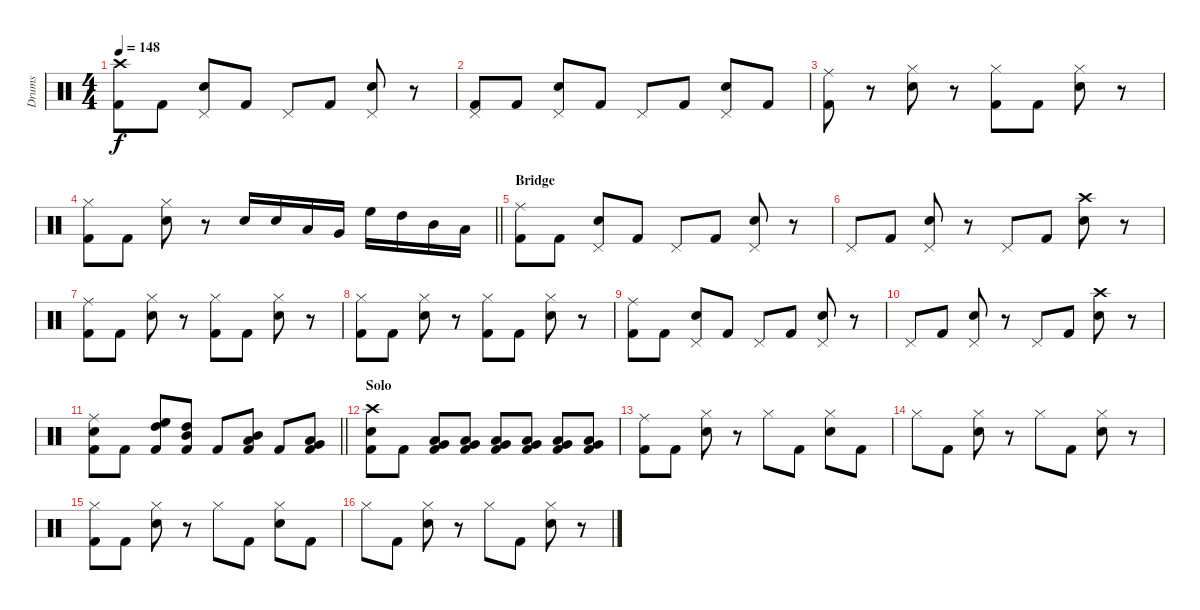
\track ("Drums" "Drums") {instrument percussion}
\staff {score}
\articulation defaults
\ts (4 4)
\tempo 148
\clef neutral
\ks c
("Crash high (hit)" "Kick (hit) 2").8{dy f} "Kick (hit) 2".8 ("Pedal Hi-Hat (hit)" "Electric Snare (hit)").8 "Kick (hit) 2".8 "Pedal Hi-Hat (hit)".8 "Kick (hit) 2".8 ("Pedal Hi-Hat (hit)" "Electric Snare (hit)").8 r.8 |
("Pedal Hi-Hat (hit)" "Kick (hit) 2").8 "Kick (hit) 2".8 ("Pedal Hi-Hat (hit)" "Electric Snare (hit)").8 "Kick (hit) 2".8 "Pedal Hi-Hat (hit)".8 "Kick (hit) 2".8 ("Pedal Hi-Hat (hit)" "Electric Snare (hit)").8 "Kick (hit) 2".8 |
("Ride (middle)" "Kick (hit) 2").8 r.8 ("Hi-Hat (closed)" "Electric Snare (hit)").8 r.8 ("Hi-Hat (closed)" "Kick (hit) 2").8 "Kick (hit) 2".8 ("Hi-Hat (closed)" "Electric Snare (hit)").8 r.8 |
\barLineRight lightlight
("Hi-Hat (closed)" "Kick (hit) 2").8 "Kick (hit) 2".8 ("Hi-Hat (closed)" "Electric Snare (hit)").8 r.8 "Electric Snare (hit)".16 "Electric Snare (hit)".16 "Low Tom (hit)".16 "Very Low Tom (hit)".16 "High Floor Tom (hit)".16 "High Tom (hit)".16 "Mid Tom (hit)".16 "Low Tom (hit)".16 |
\section ("" "Bridge")
("Ride (middle)" "Kick (hit) 2").8 "Kick (hit) 2".8 ("Pedal Hi-Hat (hit)" "Electric Snare (hit)").8 "Kick (hit) 2".8 "Pedal Hi-Hat (hit)".8 "Kick (hit) 2".8 ("Pedal Hi-Hat (hit)" "Electric Snare (hit)").8 r.8 |
"Pedal Hi-Hat (hit)".8 "Kick (hit) 2".8 ("Pedal Hi-Hat (hit)" "Electric Snare (hit)").8 r.8 "Pedal Hi-Hat (hit)".8 "Kick (hit) 2".8 ("Crash high (hit)" "Electric Snare (hit)").8 r.8 |
("Ride (middle)" "Kick (hit) 2").8 "Kick (hit) 2".8 ("Hi-Hat (closed)" "Electric Snare (hit)").8 r.8 ("Hi-Hat (closed)" "Kick (hit) 2").8 "Kick (hit) 2".8 ("Hi-Hat (closed)" "Electric Snare (hit)").8 r.8 |
("Hi-Hat (closed)" "Kick (hit) 2").8 "Kick (hit) 2".8 ("Hi-Hat (closed)" "Electric Snare (hit)").8 r.8 ("Hi-Hat (closed)" "Kick (hit) 2").8 "Kick (hit) 2".8 ("Hi-Hat (closed)" "Electric Snare (hit)").8 r.8 |
("Ride (middle)" "Kick (hit) 2").8 "Kick (hit) 2".8 ("Pedal Hi-Hat (hit)" "Electric Snare (hit)").8 "Kick (hit) 2".8 "Pedal Hi-Hat (hit)".8 "Kick (hit) 2".8 ("Pedal Hi-Hat (hit)" "Electric Snare (hit)").8 r.8 |
"Pedal Hi-Hat (hit)".8 "Kick (hit) 2".8 ("Pedal Hi-Hat (hit)" "Electric Snare (hit)").8 r.8 "Pedal Hi-Hat (hit)".8 "Kick (hit) 2".8 ("Crash high (hit)" "Electric Snare (hit)").8 r.8 |
\barLineRight lightlight
("Ride (middle)" "Electric Snare (hit)" "Kick (hit) 2").8 "Kick (hit) 2".8 ("High Floor Tom (hit)" "High Tom (hit)" "Kick (hit) 2").8 ("Mid Tom (hit)" "High Tom (hit)" "Kick (hit) 2").8 "Kick (hit) 2".8 ("Mid Tom (hit)" "Low Tom (hit)" "Kick (hit) 2").8 "Kick (hit) 2".8 ("Very Low Tom (hit)" "Low Tom (hit)" "Kick (hit) 2").8 |
\section ("" "Solo")
("Crash high (hit)" "Electric Snare (hit)" "Kick (hit) 2").8 "Kick (hit) 2".8 ("Very Low Tom (hit)" "Low Floor Tom (hit)" "Kick (hit) 2").8 ("Very Low Tom (hit)" "Low Floor Tom (hit)" "Kick (hit) 2").8 ("Very Low Tom (hit)" "Low Floor Tom (hit)" "Kick (hit) 2").8 ("Very Low Tom (hit)" "Low Floor Tom (hit)" "Kick (hit) 2").8 ("Very Low Tom (hit)" "Low Floor Tom (hit)" "Kick (hit) 2").8 ("Very Low Tom (hit)" "Low Floor Tom (hit)" "Kick (hit) 2").8 |
("Ride (middle)" "Kick (hit) 2").8 "Kick (hit) 2".8 ("Hi-Hat (closed)" "Electric Snare (hit)").8 r.8 "Hi-Hat (closed)".8 "Kick (hit) 2".8 ("Hi-Hat (closed)" "Electric Snare (hit)").8 "Kick (hit) 2".8 |
"Hi-Hat (closed)".8 "Kick (hit) 2".8 ("Hi-Hat (closed)" "Electric Snare (hit)").8 r.8 "Hi-Hat (closed)".8 "Kick (hit) 2".8 ("Hi-Hat (closed)" "Electric Snare (hit)").8 r.8 |
("Hi-Hat (closed)" "Kick (hit) 2").8 "Kick (hit) 2".8 ("Hi-Hat (closed)" "Electric Snare (hit)").8 r.8 "Hi-Hat (closed)".8 "Kick (hit) 2".8 ("Hi-Hat (closed)" "Electric Snare (hit)").8 "Kick (hit) 2".8 |
"Hi-Hat (closed)".8 "Kick (hit) 2".8 ("Hi-Hat (closed)" "Electric Snare (hit)").8 r.8 "Hi-Hat (closed)".8 "Kick (hit) 2".8 ("Hi-Hat (closed)" "Electric Snare (hit)").8 r.8
